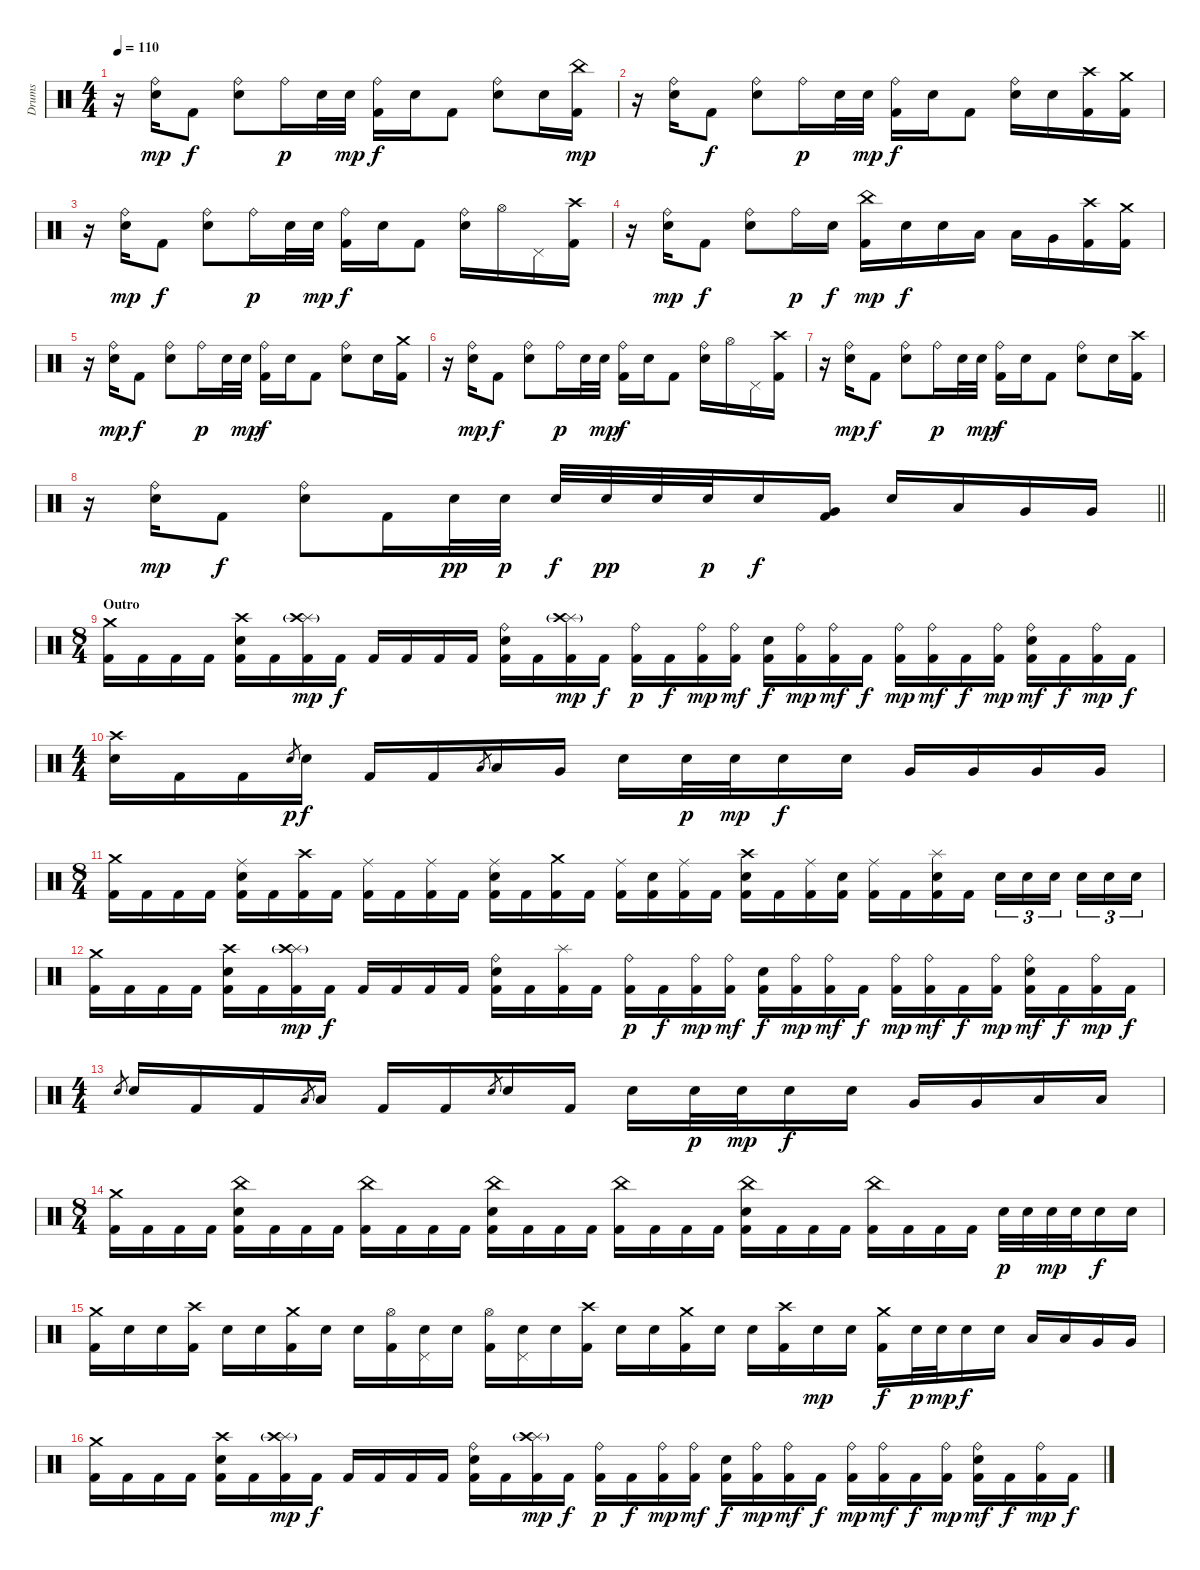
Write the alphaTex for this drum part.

\track ("Drums" "Drums") {instrument percussion}
\staff {score}
\articulation defaults
\ts (4 4)
\tempo 110
\clef neutral
\ks c
r.16{dy f} ("Ride (bell)" "Electric Snare (hit)").16{dy mp} "Kick (hit) 2".8{dy f} ("Ride (bell)" "Electric Snare (hit)").8 "Ride (bell)".16{dy p} "Electric Snare (hit)".32 "Electric Snare (hit)".32{dy mp} ("Ride (bell)" "Kick (hit) 2").16{dy f} "Electric Snare (hit)".16 "Kick (hit) 2".8 ("Ride (bell)" "Electric Snare (hit)").8 "Electric Snare (hit)".16 ("China (hit)" "Kick (hit) 2").16{dy mp} |
r.16 ("Ride (bell)" "Electric Snare (hit)").16 "Kick (hit) 2".8{dy f} ("Ride (bell)" "Electric Snare (hit)").8 "Ride (bell)".16{dy p} "Electric Snare (hit)".32 "Electric Snare (hit)".32{dy mp} ("Ride (bell)" "Kick (hit) 2").16{dy f} "Electric Snare (hit)".16 "Kick (hit) 2".8 ("Ride (bell)" "Electric Snare (hit)").16 "Electric Snare (hit)".16 ("Crash high (hit)" "Kick (hit) 2").16 ("Crash medium (hit)" "Kick (hit) 2").16 |
r.16 ("Ride (bell)" "Electric Snare (hit)").16{dy mp} "Kick (hit) 2".8{dy f} ("Ride (bell)" "Electric Snare (hit)").8 "Ride (bell)".16{dy p} "Electric Snare (hit)".32 "Electric Snare (hit)".32{dy mp} ("Ride (bell)" "Kick (hit) 2").16{dy f} "Electric Snare (hit)".16 "Kick (hit) 2".8 ("Ride (bell)" "Electric Snare (hit)").16 "Hi-Hat (open)".16 "Pedal Hi-Hat (hit)".16 ("Crash high (hit)" "Kick (hit) 2").16 |
r.16 ("Ride (bell)" "Electric Snare (hit)").16{dy mp} "Kick (hit) 2".8{dy f} ("Ride (bell)" "Electric Snare (hit)").8 "Ride (bell)".16{dy p} "Electric Snare (hit)".16{dy f} ("China (hit)" "Kick (hit) 2").16{dy mp} "Electric Snare (hit)".16{dy f} "Electric Snare (hit)".16 "Low Tom (hit)".16 "Low Tom (hit)".16 "Very Low Tom (hit)".16 ("Crash high (hit)" "Kick (hit) 2").16 ("Crash medium (hit)" "Kick (hit) 2").16 |
r.16 ("Ride (bell)" "Electric Snare (hit)").16{dy mp} "Kick (hit) 2".8{dy f} ("Ride (bell)" "Electric Snare (hit)").8 "Ride (bell)".16{dy p} "Electric Snare (hit)".32 "Electric Snare (hit)".32{dy mp} ("Ride (bell)" "Kick (hit) 2").16{dy f} "Electric Snare (hit)".16 "Kick (hit) 2".8 ("Ride (bell)" "Electric Snare (hit)").8 "Electric Snare (hit)".16 ("Crash medium (hit)" "Kick (hit) 2").16 |
r.16 ("Ride (bell)" "Electric Snare (hit)").16{dy mp} "Kick (hit) 2".8{dy f} ("Ride (bell)" "Electric Snare (hit)").8 "Ride (bell)".16{dy p} "Electric Snare (hit)".32 "Electric Snare (hit)".32{dy mp} ("Ride (bell)" "Kick (hit) 2").16{dy f} "Electric Snare (hit)".16 "Kick (hit) 2".8 ("Ride (bell)" "Electric Snare (hit)").16 "Hi-Hat (open)".16 "Pedal Hi-Hat (hit)".16 ("Crash high (hit)" "Kick (hit) 2").16 |
r.16 ("Ride (bell)" "Electric Snare (hit)").16{dy mp} "Kick (hit) 2".8{dy f} ("Ride (bell)" "Electric Snare (hit)").8 "Ride (bell)".16{dy p} "Electric Snare (hit)".32 "Electric Snare (hit)".32{dy mp} ("Ride (bell)" "Kick (hit) 2").16{dy f} "Electric Snare (hit)".16 "Kick (hit) 2".8 ("Ride (bell)" "Electric Snare (hit)").8 "Electric Snare (hit)".16 ("Crash high (hit)" "Kick (hit) 2").16 |
\barLineRight lightlight
r.16 ("Ride (bell)" "Electric Snare (hit)").16{dy mp} "Kick (hit) 2".8{dy f} ("Ride (bell)" "Electric Snare (hit)").8 "Kick (hit) 2".16 "Electric Snare (hit)".32{dy pp} "Electric Snare (hit)".32{dy p} "Electric Snare (hit)".32{dy f} "Electric Snare (hit)".32{dy pp} "Electric Snare (hit)".32 "Electric Snare (hit)".32{dy p} "Electric Snare (hit)".16{dy f} ("Very Low Tom (hit)" "Kick (hit) 2").16 "Electric Snare (hit)".16 "Low Tom (hit)".16 "Very Low Tom (hit)".16 "Very Low Tom (hit)".16 |
\ts (8 4)
\section ("" "Outro")
("Crash medium (hit)" "Kick (hit) 2").16 "Kick (hit) 2".16 "Kick (hit) 2".16 "Kick (hit) 2".16 ("Crash high (hit)" "Electric Snare (hit)" "Kick (hit) 2").16 "Kick (hit) 2".16 ("Splash (hit)" "Crash high (hit)"{g} "Kick (hit) 2").16{dy mp} "Kick (hit) 2".16{dy f} "Kick (hit) 2".16 "Kick (hit) 2".16 "Kick (hit) 2".16 "Kick (hit) 2".16 ("Ride (bell)" "Electric Snare (hit)" "Kick (hit) 2").16 "Kick (hit) 2".16 ("Splash (hit)" "Crash high (hit)"{g} "Kick (hit) 2").16{dy mp} "Kick (hit) 2".16{dy f} ("Ride (bell)" "Kick (hit) 2").16{dy p} "Kick (hit) 2".16{dy f} ("Ride (bell)" "Kick (hit) 2").16{dy mp} ("Ride (bell)" "Kick (hit) 2").16{dy mf} ("Electric Snare (hit)" "Kick (hit) 2").16{dy f} ("Ride (bell)" "Kick (hit) 2").16{dy mp} ("Ride (bell)" "Kick (hit) 2").16{dy mf} "Kick (hit) 2".16{dy f} ("Ride (bell)" "Kick (hit) 2").16{dy mp} ("Ride (bell)" "Kick (hit) 2").16{dy mf} "Kick (hit) 2".16{dy f} ("Ride (bell)" "Kick (hit) 2").16{dy mp} ("Ride (bell)" "Electric Snare (hit)" "Kick (hit) 2").16{dy mf} "Kick (hit) 2".16{dy f} ("Ride (bell)" "Kick (hit) 2").16{dy mp} "Kick (hit) 2".16{dy f} |
\ts (4 4)
("Crash high (hit)" "Electric Snare (hit)").16 "Kick (hit) 2".16 "Kick (hit) 2".16 "Electric Snare (hit)".8{gr dy p} "Electric Snare (hit)".16{dy f} "Kick (hit) 2".16 "Kick (hit) 2".16 "Low Tom (hit)".8{gr} "Low Tom (hit)".16 "Very Low Tom (hit)".16 "Electric Snare (hit)".16 "Electric Snare (hit)".32{dy p} "Electric Snare (hit)".32{dy mp} "Electric Snare (hit)".16{dy f} "Electric Snare (hit)".16 "Very Low Tom (hit)".16 "Very Low Tom (hit)".16 "Very Low Tom (hit)".16 "Very Low Tom (hit)".16 |
\ts (8 4)
("Crash medium (hit)" "Kick (hit) 2").16 "Kick (hit) 2".16 "Kick (hit) 2".16 "Kick (hit) 2".16 ("Ride (middle)" "Electric Snare (hit)" "Kick (hit) 2").16 "Kick (hit) 2".16 ("Crash high (hit)" "Kick (hit) 2").16 "Kick (hit) 2".16 ("Ride (middle)" "Kick (hit) 2").16 "Kick (hit) 2".16 ("Ride (middle)" "Kick (hit) 2").16 "Kick (hit) 2".16 ("Ride (middle)" "Electric Snare (hit)" "Kick (hit) 2").16 "Kick (hit) 2".16 ("Crash medium (hit)" "Kick (hit) 2").16 "Kick (hit) 2".16 ("Ride (middle)" "Kick (hit) 2").16 ("Electric Snare (hit)" "Kick (hit) 2").16 ("Ride (middle)" "Kick (hit) 2").16 "Kick (hit) 2".16 ("Crash high (hit)" "Electric Snare (hit)" "Kick (hit) 2").16 "Kick (hit) 2".16 ("Ride (middle)" "Kick (hit) 2").16 ("Electric Snare (hit)" "Kick (hit) 2").16 ("Ride (middle)" "Kick (hit) 2").16 "Kick (hit) 2".16 ("Splash (hit)" "Electric Snare (hit)" "Kick (hit) 2").16 "Kick (hit) 2".16 "Electric Snare (hit)".16{tu (3 2)} "Electric Snare (hit)".16{tu (3 2)} "Electric Snare (hit)".16{tu (3 2) beam splitsecondary} "Electric Snare (hit)".16{tu (3 2)} "Electric Snare (hit)".16{tu (3 2)} "Electric Snare (hit)".16{tu (3 2)} |
("Crash medium (hit)" "Kick (hit) 2").16 "Kick (hit) 2".16 "Kick (hit) 2".16 "Kick (hit) 2".16 ("Crash high (hit)" "Electric Snare (hit)" "Kick (hit) 2").16 "Kick (hit) 2".16 ("Splash (hit)" "Crash high (hit)"{g} "Kick (hit) 2").16{dy mp} "Kick (hit) 2".16{dy f} "Kick (hit) 2".16 "Kick (hit) 2".16 "Kick (hit) 2".16 "Kick (hit) 2".16 ("Ride (bell)" "Electric Snare (hit)" "Kick (hit) 2").16 "Kick (hit) 2".16 ("Splash (hit)" "Kick (hit) 2").16 "Kick (hit) 2".16 ("Ride (bell)" "Kick (hit) 2").16{dy p} "Kick (hit) 2".16{dy f} ("Ride (bell)" "Kick (hit) 2").16{dy mp} ("Ride (bell)" "Kick (hit) 2").16{dy mf} ("Electric Snare (hit)" "Kick (hit) 2").16{dy f} ("Ride (bell)" "Kick (hit) 2").16{dy mp} ("Ride (bell)" "Kick (hit) 2").16{dy mf} "Kick (hit) 2".16{dy f} ("Ride (bell)" "Kick (hit) 2").16{dy mp} ("Ride (bell)" "Kick (hit) 2").16{dy mf} "Kick (hit) 2".16{dy f} ("Ride (bell)" "Kick (hit) 2").16{dy mp} ("Ride (bell)" "Electric Snare (hit)" "Kick (hit) 2").16{dy mf} "Kick (hit) 2".16{dy f} ("Ride (bell)" "Kick (hit) 2").16{dy mp} "Kick (hit) 2".16{dy f} |
\ts (4 4)
"Electric Snare (hit)".8{gr} "Electric Snare (hit)".16 "Kick (hit) 2".16 "Kick (hit) 2".16 "Low Tom (hit)".8{gr} "Low Tom (hit)".16 "Kick (hit) 2".16 "Kick (hit) 2".16 "Electric Snare (hit)".8{gr} "Electric Snare (hit)".16 "Kick (hit) 2".16 "Electric Snare (hit)".16 "Electric Snare (hit)".32{dy p} "Electric Snare (hit)".32{dy mp} "Electric Snare (hit)".16{dy f} "Electric Snare (hit)".16 "Very Low Tom (hit)".16 "Very Low Tom (hit)".16 "Low Floor Tom (hit)".16 "Low Floor Tom (hit)".16 |
\ts (8 4)
("Crash medium (hit)" "Kick (hit) 2").16 "Kick (hit) 2".16 "Kick (hit) 2".16 "Kick (hit) 2".16 ("China (hit)" "Electric Snare (hit)" "Kick (hit) 2").16 "Kick (hit) 2".16 "Kick (hit) 2".16 "Kick (hit) 2".16 ("China (hit)" "Kick (hit) 2").16 "Kick (hit) 2".16 "Kick (hit) 2".16 "Kick (hit) 2".16 ("China (hit)" "Electric Snare (hit)" "Kick (hit) 2").16 "Kick (hit) 2".16 "Kick (hit) 2".16 "Kick (hit) 2".16 ("China (hit)" "Kick (hit) 2").16 "Kick (hit) 2".16 "Kick (hit) 2".16 "Kick (hit) 2".16 ("China (hit)" "Electric Snare (hit)" "Kick (hit) 2").16 "Kick (hit) 2".16 "Kick (hit) 2".16 "Kick (hit) 2".16 ("China (hit)" "Kick (hit) 2").16 "Kick (hit) 2".16 "Kick (hit) 2".16 "Kick (hit) 2".16 "Electric Snare (hit)".32{dy p} "Electric Snare (hit)".32 "Electric Snare (hit)".32{dy mp} "Electric Snare (hit)".32 "Electric Snare (hit)".16{dy f} "Electric Snare (hit)".16 |
("Crash medium (hit)" "Kick (hit) 2").16 "Electric Snare (hit)".16 "Electric Snare (hit)".16 ("Crash high (hit)" "Kick (hit) 2").16 "Electric Snare (hit)".16 "Electric Snare (hit)".16 ("Crash medium (hit)" "Kick (hit) 2").16 "Electric Snare (hit)".16 "Electric Snare (hit)".16 ("Hi-Hat (open)" "Kick (hit) 2").16 ("Pedal Hi-Hat (hit)" "Electric Snare (hit)").16 "Electric Snare (hit)".16 ("Hi-Hat (open)" "Kick (hit) 2").16 ("Pedal Hi-Hat (hit)" "Electric Snare (hit)").16 "Electric Snare (hit)".16 ("Crash high (hit)" "Kick (hit) 2").16 "Electric Snare (hit)".16 "Electric Snare (hit)".16 ("Crash medium (hit)" "Kick (hit) 2").16 "Electric Snare (hit)".16 "Electric Snare (hit)".16 ("Crash high (hit)" "Kick (hit) 2").16 "Electric Snare (hit)".16{dy mp} "Electric Snare (hit)".16 ("Crash medium (hit)" "Kick (hit) 2").16{dy f} "Electric Snare (hit)".32{dy p} "Electric Snare (hit)".32{dy mp} "Electric Snare (hit)".16{dy f} "Electric Snare (hit)".16 "Low Tom (hit)".16 "Low Tom (hit)".16 "Very Low Tom (hit)".16 "Very Low Tom (hit)".16 |
("Crash medium (hit)" "Kick (hit) 2").16 "Kick (hit) 2".16 "Kick (hit) 2".16 "Kick (hit) 2".16 ("Crash high (hit)" "Electric Snare (hit)" "Kick (hit) 2").16 "Kick (hit) 2".16 ("Splash (hit)" "Crash high (hit)"{g} "Kick (hit) 2").16{dy mp} "Kick (hit) 2".16{dy f} "Kick (hit) 2".16 "Kick (hit) 2".16 "Kick (hit) 2".16 "Kick (hit) 2".16 ("Ride (bell)" "Electric Snare (hit)" "Kick (hit) 2").16 "Kick (hit) 2".16 ("Splash (hit)" "Crash high (hit)"{g} "Kick (hit) 2").16{dy mp} "Kick (hit) 2".16{dy f} ("Ride (bell)" "Kick (hit) 2").16{dy p} "Kick (hit) 2".16{dy f} ("Ride (bell)" "Kick (hit) 2").16{dy mp} ("Ride (bell)" "Kick (hit) 2").16{dy mf} ("Electric Snare (hit)" "Kick (hit) 2").16{dy f} ("Ride (bell)" "Kick (hit) 2").16{dy mp} ("Ride (bell)" "Kick (hit) 2").16{dy mf} "Kick (hit) 2".16{dy f} ("Ride (bell)" "Kick (hit) 2").16{dy mp} ("Ride (bell)" "Kick (hit) 2").16{dy mf} "Kick (hit) 2".16{dy f} ("Ride (bell)" "Kick (hit) 2").16{dy mp} ("Ride (bell)" "Electric Snare (hit)" "Kick (hit) 2").16{dy mf} "Kick (hit) 2".16{dy f} ("Ride (bell)" "Kick (hit) 2").16{dy mp} "Kick (hit) 2".16{dy f}
